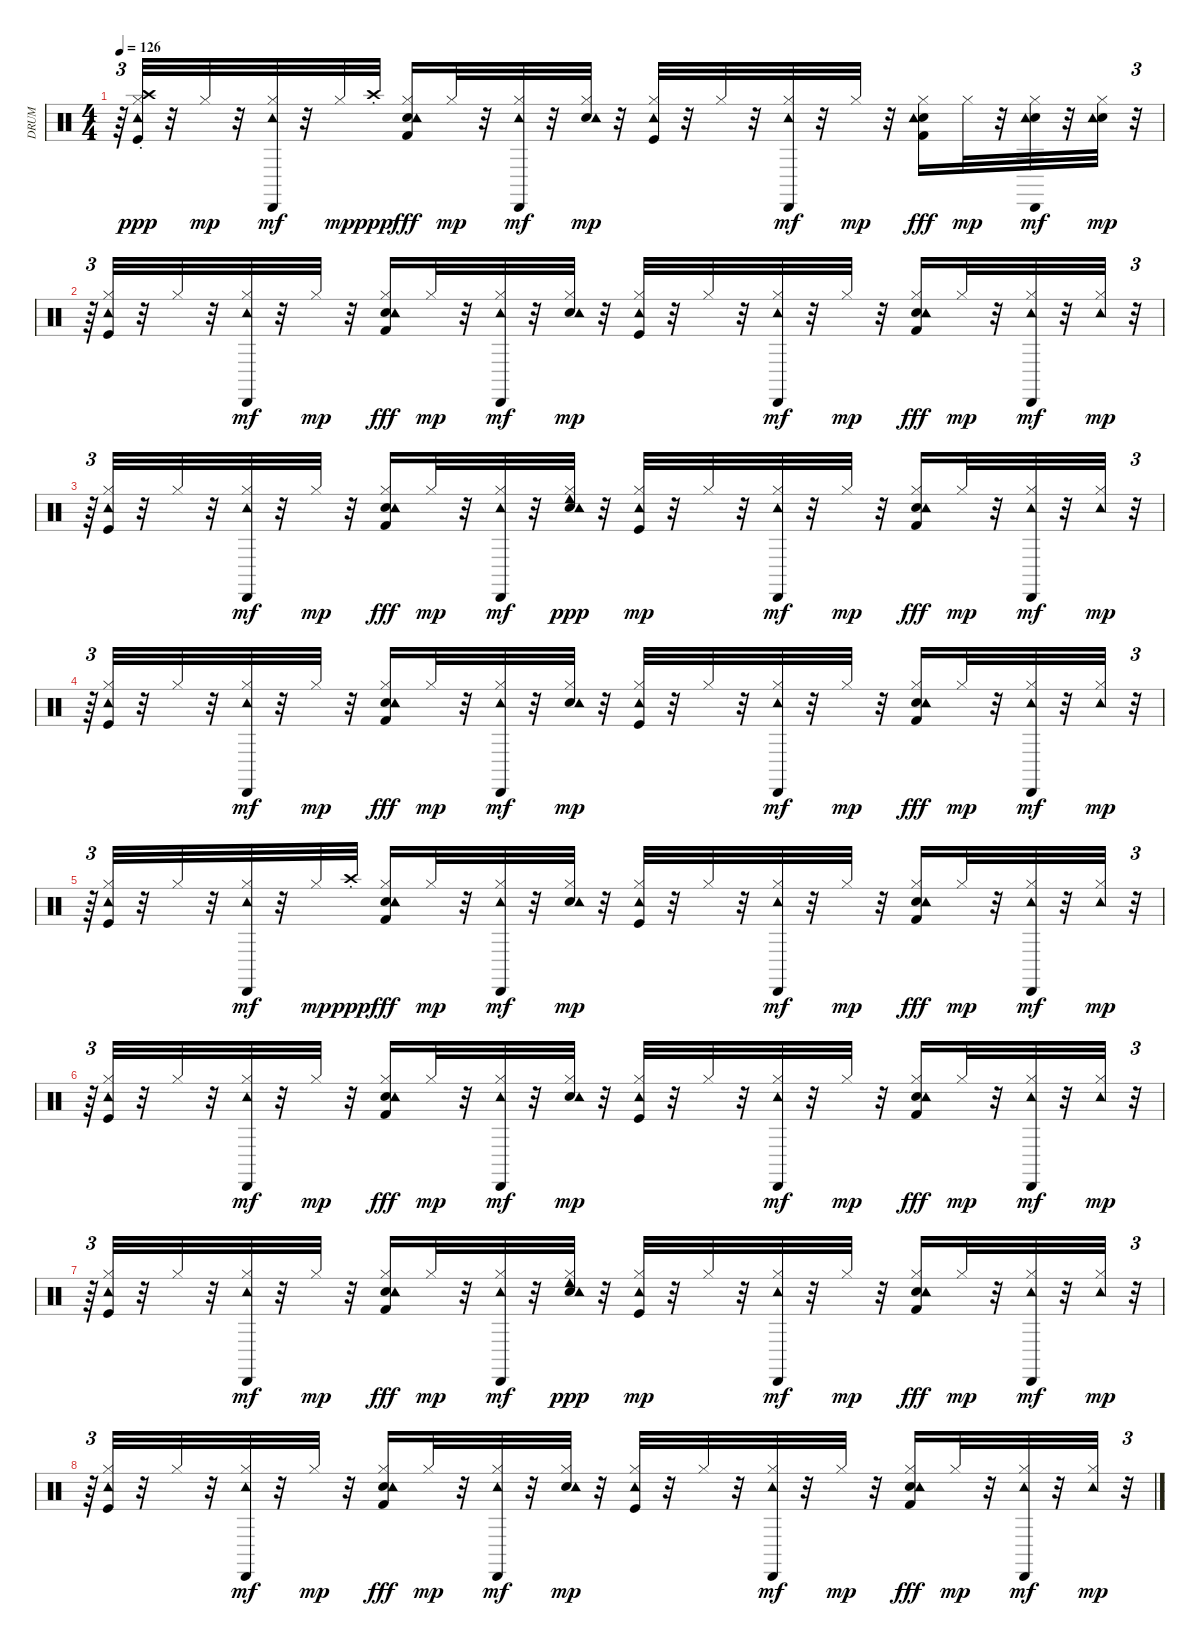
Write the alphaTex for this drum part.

\track ("DRUM" "DRUM") {instrument percussion}
\staff {score}
\articulation defaults
\ts (4 4)
\tempo 126
\clef neutral
\ks c
r.64{tu (3 2) dy mp} ("Kick (hit)" "Hi-Hat (closed)" "Tambourine (hit)" "Crash high (choke)").32{dy ppp} r.32 "Hi-Hat (closed)".32{dy mp} r.32 ("Hi-Hat (closed)" "Tambourine (hit)" "Cabasa (hit)").32{dy mf} r.32 "Hi-Hat (closed)".32{dy mp} "Crash high (choke)".32{dy ppp} ("Snare (hit) 2" "Hi-Hat (closed)" "Tambourine (hit)" "Kick (hit) 2").16{dy fff} "Hi-Hat (closed)".32{dy mp} r.32 ("Hi-Hat (closed)" "Tambourine (hit)" "Cabasa (hit)").32{dy mf} r.32 ("Snare (hit) 2" "Hi-Hat (closed)" "Tambourine (hit)").32{dy mp} r.32 ("Kick (hit)" "Hi-Hat (closed)" "Tambourine (hit)").32 r.32 "Hi-Hat (closed)".32 r.32 ("Hi-Hat (closed)" "Tambourine (hit)" "Cabasa (hit)").32{dy mf} r.32 "Hi-Hat (closed)".32{dy mp} r.32 ("Snare (hit) 2" "Hi-Hat (closed)" "Tambourine (hit)" "Kick (hit) 2").16{dy fff} "Hi-Hat (closed)".32{dy mp} r.32 ("Snare (hit) 2" "Hi-Hat (closed)" "Tambourine (hit)" "Cabasa (hit)").32{dy mf} r.32 ("Snare (hit) 2" "Hi-Hat (closed)" "Tambourine (hit)").32{dy mp} r.32{tu (3 2)} |
r.64{tu (3 2)} ("Kick (hit)" "Hi-Hat (closed)" "Tambourine (hit)").32 r.32 "Hi-Hat (closed)".32 r.32 ("Hi-Hat (closed)" "Tambourine (hit)" "Cabasa (hit)").32{dy mf} r.32 "Hi-Hat (closed)".32{dy mp} r.32 ("Snare (hit) 2" "Hi-Hat (closed)" "Tambourine (hit)" "Kick (hit) 2").16{dy fff} "Hi-Hat (closed)".32{dy mp} r.32 ("Hi-Hat (closed)" "Tambourine (hit)" "Cabasa (hit)").32{dy mf} r.32 ("Snare (hit) 2" "Hi-Hat (closed)" "Tambourine (hit)").32{dy mp} r.32 ("Kick (hit)" "Hi-Hat (closed)" "Tambourine (hit)").32 r.32 "Hi-Hat (closed)".32 r.32 ("Hi-Hat (closed)" "Tambourine (hit)" "Cabasa (hit)").32{dy mf} r.32 "Hi-Hat (closed)".32{dy mp} r.32 ("Snare (hit) 2" "Hi-Hat (closed)" "Tambourine (hit)" "Kick (hit) 2").16{dy fff} "Hi-Hat (closed)".32{dy mp} r.32 ("Hi-Hat (closed)" "Tambourine (hit)" "Cabasa (hit)").32{dy mf} r.32 ("Hi-Hat (closed)" "Tambourine (hit)").32{dy mp} r.32{tu (3 2)} |
r.64{tu (3 2)} ("Kick (hit)" "Hi-Hat (closed)" "Tambourine (hit)").32 r.32 "Hi-Hat (closed)".32 r.32 ("Hi-Hat (closed)" "Tambourine (hit)" "Cabasa (hit)").32{dy mf} r.32 "Hi-Hat (closed)".32{dy mp} r.32 ("Snare (hit) 2" "Hi-Hat (closed)" "Tambourine (hit)" "Kick (hit) 2").16{dy fff} "Hi-Hat (closed)".32{dy mp} r.32 ("Hi-Hat (closed)" "Tambourine (hit)" "Cabasa (hit)").32{dy mf} r.32 ("Snare (hit) 2" "Hi-Hat (closed)" "Tambourine (hit)" "Cowbell low (hit)").32{dy ppp} r.32 ("Kick (hit)" "Hi-Hat (closed)" "Tambourine (hit)").32{dy mp} r.32 "Hi-Hat (closed)".32 r.32 ("Hi-Hat (closed)" "Tambourine (hit)" "Cabasa (hit)").32{dy mf} r.32 "Hi-Hat (closed)".32{dy mp} r.32 ("Snare (hit) 2" "Hi-Hat (closed)" "Tambourine (hit)" "Kick (hit) 2").16{dy fff} "Hi-Hat (closed)".32{dy mp} r.32 ("Hi-Hat (closed)" "Tambourine (hit)" "Cabasa (hit)").32{dy mf} r.32 ("Hi-Hat (closed)" "Tambourine (hit)").32{dy mp} r.32{tu (3 2)} |
r.64{tu (3 2)} ("Kick (hit)" "Hi-Hat (closed)" "Tambourine (hit)").32 r.32 "Hi-Hat (closed)".32 r.32 ("Hi-Hat (closed)" "Tambourine (hit)" "Cabasa (hit)").32{dy mf} r.32 "Hi-Hat (closed)".32{dy mp} r.32 ("Snare (hit) 2" "Hi-Hat (closed)" "Tambourine (hit)" "Kick (hit) 2").16{dy fff} "Hi-Hat (closed)".32{dy mp} r.32 ("Hi-Hat (closed)" "Tambourine (hit)" "Cabasa (hit)").32{dy mf} r.32 ("Snare (hit) 2" "Hi-Hat (closed)" "Tambourine (hit)").32{dy mp} r.32 ("Kick (hit)" "Hi-Hat (closed)" "Tambourine (hit)").32 r.32 "Hi-Hat (closed)".32 r.32 ("Hi-Hat (closed)" "Tambourine (hit)" "Cabasa (hit)").32{dy mf} r.32 "Hi-Hat (closed)".32{dy mp} r.32 ("Snare (hit) 2" "Hi-Hat (closed)" "Tambourine (hit)" "Kick (hit) 2").16{dy fff} "Hi-Hat (closed)".32{dy mp} r.32 ("Hi-Hat (closed)" "Tambourine (hit)" "Cabasa (hit)").32{dy mf} r.32 ("Hi-Hat (closed)" "Tambourine (hit)").32{dy mp} r.32{tu (3 2)} |
r.64{tu (3 2)} ("Kick (hit)" "Hi-Hat (closed)" "Tambourine (hit)").32 r.32 "Hi-Hat (closed)".32 r.32 ("Hi-Hat (closed)" "Tambourine (hit)" "Cabasa (hit)").32{dy mf} r.32 "Hi-Hat (closed)".32{dy mp} "Crash high (choke)".32{dy ppp} ("Snare (hit) 2" "Hi-Hat (closed)" "Tambourine (hit)" "Kick (hit) 2").16{dy fff} "Hi-Hat (closed)".32{dy mp} r.32 ("Hi-Hat (closed)" "Tambourine (hit)" "Cabasa (hit)").32{dy mf} r.32 ("Snare (hit) 2" "Hi-Hat (closed)" "Tambourine (hit)").32{dy mp} r.32 ("Kick (hit)" "Hi-Hat (closed)" "Tambourine (hit)").32 r.32 "Hi-Hat (closed)".32 r.32 ("Hi-Hat (closed)" "Tambourine (hit)" "Cabasa (hit)").32{dy mf} r.32 "Hi-Hat (closed)".32{dy mp} r.32 ("Snare (hit) 2" "Hi-Hat (closed)" "Tambourine (hit)" "Kick (hit) 2").16{dy fff} "Hi-Hat (closed)".32{dy mp} r.32 ("Hi-Hat (closed)" "Tambourine (hit)" "Cabasa (hit)").32{dy mf} r.32 ("Hi-Hat (closed)" "Tambourine (hit)").32{dy mp} r.32{tu (3 2)} |
r.64{tu (3 2)} ("Kick (hit)" "Hi-Hat (closed)" "Tambourine (hit)").32 r.32 "Hi-Hat (closed)".32 r.32 ("Hi-Hat (closed)" "Tambourine (hit)" "Cabasa (hit)").32{dy mf} r.32 "Hi-Hat (closed)".32{dy mp} r.32 ("Snare (hit) 2" "Hi-Hat (closed)" "Tambourine (hit)" "Kick (hit) 2").16{dy fff} "Hi-Hat (closed)".32{dy mp} r.32 ("Hi-Hat (closed)" "Tambourine (hit)" "Cabasa (hit)").32{dy mf} r.32 ("Snare (hit) 2" "Hi-Hat (closed)" "Tambourine (hit)").32{dy mp} r.32 ("Kick (hit)" "Hi-Hat (closed)" "Tambourine (hit)").32 r.32 "Hi-Hat (closed)".32 r.32 ("Hi-Hat (closed)" "Tambourine (hit)" "Cabasa (hit)").32{dy mf} r.32 "Hi-Hat (closed)".32{dy mp} r.32 ("Snare (hit) 2" "Hi-Hat (closed)" "Tambourine (hit)" "Kick (hit) 2").16{dy fff} "Hi-Hat (closed)".32{dy mp} r.32 ("Hi-Hat (closed)" "Tambourine (hit)" "Cabasa (hit)").32{dy mf} r.32 ("Hi-Hat (closed)" "Tambourine (hit)").32{dy mp} r.32{tu (3 2)} |
r.64{tu (3 2)} ("Kick (hit)" "Hi-Hat (closed)" "Tambourine (hit)").32 r.32 "Hi-Hat (closed)".32 r.32 ("Hi-Hat (closed)" "Tambourine (hit)" "Cabasa (hit)").32{dy mf} r.32 "Hi-Hat (closed)".32{dy mp} r.32 ("Snare (hit) 2" "Hi-Hat (closed)" "Tambourine (hit)" "Kick (hit) 2").16{dy fff} "Hi-Hat (closed)".32{dy mp} r.32 ("Hi-Hat (closed)" "Tambourine (hit)" "Cabasa (hit)").32{dy mf} r.32 ("Snare (hit) 2" "Hi-Hat (closed)" "Tambourine (hit)" "Cowbell low (hit)").32{dy ppp} r.32 ("Kick (hit)" "Hi-Hat (closed)" "Tambourine (hit)").32{dy mp} r.32 "Hi-Hat (closed)".32 r.32 ("Hi-Hat (closed)" "Tambourine (hit)" "Cabasa (hit)").32{dy mf} r.32 "Hi-Hat (closed)".32{dy mp} r.32 ("Snare (hit) 2" "Hi-Hat (closed)" "Tambourine (hit)" "Kick (hit) 2").16{dy fff} "Hi-Hat (closed)".32{dy mp} r.32 ("Hi-Hat (closed)" "Tambourine (hit)" "Cabasa (hit)").32{dy mf} r.32 ("Hi-Hat (closed)" "Tambourine (hit)").32{dy mp} r.32{tu (3 2)} |
r.64{tu (3 2)} ("Kick (hit)" "Hi-Hat (closed)" "Tambourine (hit)").32 r.32 "Hi-Hat (closed)".32 r.32 ("Hi-Hat (closed)" "Tambourine (hit)" "Cabasa (hit)").32{dy mf} r.32 "Hi-Hat (closed)".32{dy mp} r.32 ("Snare (hit) 2" "Hi-Hat (closed)" "Tambourine (hit)" "Kick (hit) 2").16{dy fff} "Hi-Hat (closed)".32{dy mp} r.32 ("Hi-Hat (closed)" "Tambourine (hit)" "Cabasa (hit)").32{dy mf} r.32 ("Snare (hit) 2" "Hi-Hat (closed)" "Tambourine (hit)").32{dy mp} r.32 ("Kick (hit)" "Hi-Hat (closed)" "Tambourine (hit)").32 r.32 "Hi-Hat (closed)".32 r.32 ("Hi-Hat (closed)" "Tambourine (hit)" "Cabasa (hit)").32{dy mf} r.32 "Hi-Hat (closed)".32{dy mp} r.32 ("Snare (hit) 2" "Hi-Hat (closed)" "Tambourine (hit)" "Kick (hit) 2").16{dy fff} "Hi-Hat (closed)".32{dy mp} r.32 ("Hi-Hat (closed)" "Tambourine (hit)" "Cabasa (hit)").32{dy mf} r.32 ("Hi-Hat (closed)" "Tambourine (hit)").32{dy mp} r.32{tu (3 2)}
